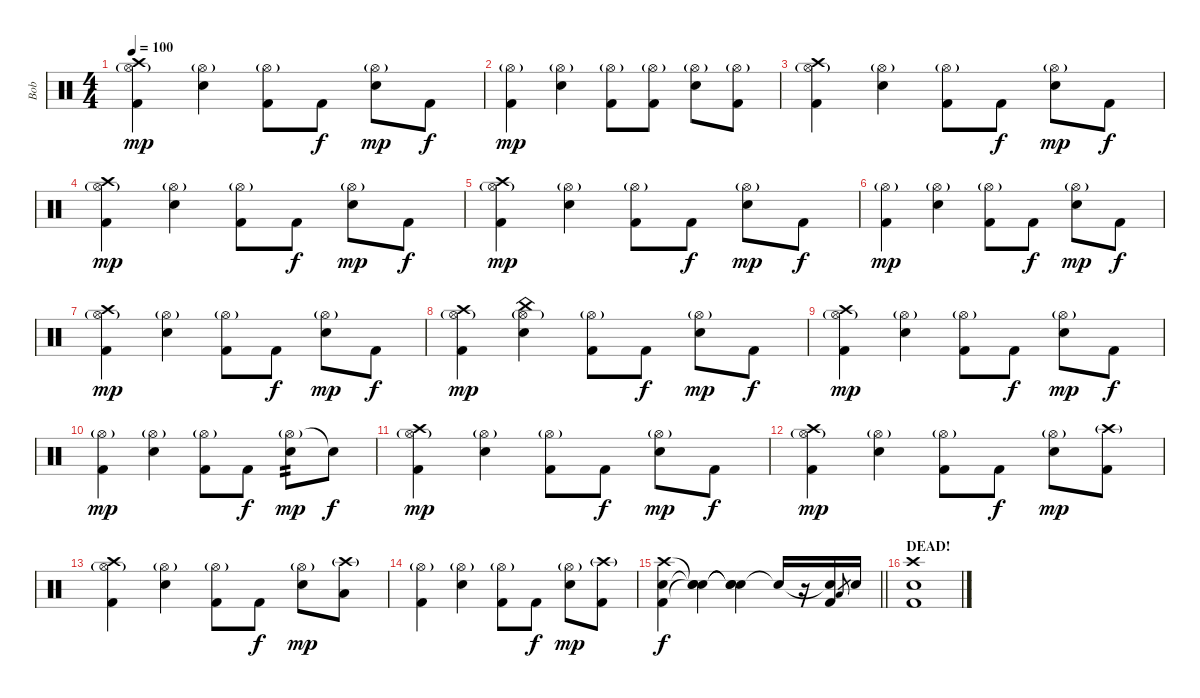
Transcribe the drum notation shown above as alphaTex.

\track ("Bob" "Bob") {instrument percussion}
\staff {score}
\articulation defaults
\ts (4 4)
\tempo 100
\clef neutral
\ks c
("Hi-Hat (open)"{g} "Crash high (hit)" "Kick (hit) 2").4{dy mp} ("Hi-Hat (open)"{g} "Electric Snare (hit)").4 ("Hi-Hat (open)"{g} "Kick (hit) 2").8 "Kick (hit) 2".8{dy f} ("Hi-Hat (open)"{g} "Electric Snare (hit)").8{dy mp} "Kick (hit) 2".8{dy f} |
("Hi-Hat (open)"{g} "Kick (hit) 2").4{dy mp} ("Hi-Hat (open)"{g} "Electric Snare (hit)").4 ("Hi-Hat (open)"{g} "Kick (hit) 2").8 ("Hi-Hat (open)"{g} "Kick (hit) 2").8 ("Hi-Hat (open)"{g} "Electric Snare (hit)").8 ("Hi-Hat (open)"{g} "Kick (hit) 2").8 |
("Hi-Hat (open)"{g} "Crash high (hit)" "Kick (hit) 2").4 ("Hi-Hat (open)"{g} "Electric Snare (hit)").4 ("Hi-Hat (open)"{g} "Kick (hit) 2").8 "Kick (hit) 2".8{dy f} ("Hi-Hat (open)"{g} "Electric Snare (hit)").8{dy mp} "Kick (hit) 2".8{dy f} |
("Hi-Hat (open)"{g} "Crash high (hit)" "Kick (hit) 2").4{dy mp} ("Hi-Hat (open)"{g} "Electric Snare (hit)").4 ("Hi-Hat (open)"{g} "Kick (hit) 2").8 "Kick (hit) 2".8{dy f} ("Hi-Hat (open)"{g} "Electric Snare (hit)").8{dy mp} "Kick (hit) 2".8{dy f} |
("Hi-Hat (open)"{g} "Crash high (hit)" "Kick (hit) 2").4{dy mp} ("Hi-Hat (open)"{g} "Electric Snare (hit)").4 ("Hi-Hat (open)"{g} "Kick (hit) 2").8 "Kick (hit) 2".8{dy f} ("Hi-Hat (open)"{g} "Electric Snare (hit)").8{dy mp} "Kick (hit) 2".8{dy f} |
("Hi-Hat (open)"{g} "Kick (hit) 2").4{dy mp} ("Hi-Hat (open)"{g} "Electric Snare (hit)").4 ("Hi-Hat (open)"{g} "Kick (hit) 2").8 "Kick (hit) 2".8{dy f} ("Hi-Hat (open)"{g} "Electric Snare (hit)").8{dy mp} "Kick (hit) 2".8{dy f} |
("Hi-Hat (open)"{g} "Crash high (hit)" "Kick (hit) 2").4{dy mp} ("Hi-Hat (open)"{g} "Electric Snare (hit)").4 ("Hi-Hat (open)"{g} "Kick (hit) 2").8 "Kick (hit) 2".8{dy f} ("Hi-Hat (open)"{g} "Electric Snare (hit)").8{dy mp} "Kick (hit) 2".8{dy f} |
("Hi-Hat (open)"{g} "Crash high (hit)" "Kick (hit) 2").4{dy mp} ("Hi-Hat (open)"{g} "China (hit)" "Electric Snare (hit)").4 ("Hi-Hat (open)"{g} "Kick (hit) 2").8 "Kick (hit) 2".8{dy f} ("Hi-Hat (open)"{g} "Electric Snare (hit)").8{dy mp} "Kick (hit) 2".8{dy f} |
("Hi-Hat (open)"{g} "Crash high (hit)" "Kick (hit) 2").4{dy mp} ("Hi-Hat (open)"{g} "Electric Snare (hit)").4 ("Hi-Hat (open)"{g} "Kick (hit) 2").8 "Kick (hit) 2".8{dy f} ("Hi-Hat (open)"{g} "Electric Snare (hit)").8{dy mp} "Kick (hit) 2".8{dy f} |
("Hi-Hat (open)"{g} "Kick (hit) 2").4{dy mp} ("Hi-Hat (open)"{g} "Electric Snare (hit)").4 ("Hi-Hat (open)"{g} "Kick (hit) 2").8 "Kick (hit) 2".8{dy f} ("Hi-Hat (open)"{g} "Electric Snare (hit)").8{tp 2 dy mp} "Snare (hit)"{t}.8{dy f} |
("Hi-Hat (open)"{g} "Crash high (hit)" "Kick (hit) 2").4{dy mp} ("Hi-Hat (open)"{g} "Electric Snare (hit)").4 ("Hi-Hat (open)"{g} "Kick (hit) 2").8 "Kick (hit) 2".8{dy f} ("Hi-Hat (open)"{g} "Electric Snare (hit)").8{dy mp} "Kick (hit) 2".8{dy f} |
("Hi-Hat (open)"{g} "Crash high (hit)" "Kick (hit) 2").4{dy mp} ("Hi-Hat (open)"{g} "Electric Snare (hit)").4 ("Hi-Hat (open)"{g} "Kick (hit) 2").8 "Kick (hit) 2".8{dy f} ("Hi-Hat (open)"{g} "Electric Snare (hit)").8{dy mp} ("Crash high (hit)"{g} "Kick (hit) 2").8 |
("Hi-Hat (open)"{g} "Crash high (hit)" "Kick (hit) 2").4 ("Hi-Hat (open)"{g} "Electric Snare (hit)").4 ("Hi-Hat (open)"{g} "Kick (hit) 2").8 "Kick (hit) 2".8{dy f} ("Hi-Hat (open)"{g} "Electric Snare (hit)").8{dy mp} ("Crash high (hit)"{g} "Low Tom (hit)").8 |
("Hi-Hat (open)"{g} "Kick (hit) 2").4 ("Hi-Hat (open)"{g} "Electric Snare (hit)").4 ("Hi-Hat (open)"{g} "Kick (hit) 2").8 "Kick (hit) 2".8{dy f} ("Hi-Hat (open)"{g} "Electric Snare (hit)").8{dy mp} ("Crash high (hit)"{g} "Kick (hit) 2").8 |
\barLineRight lightlight
("Crash high (hit)" "Electric Snare (hit)" "Kick (hit) 2").4{dy f} ("Snare (hit)"{t} "Snare (hit)"{t} "Snare (hit)"{t}).4 ("Snare (hit)"{t} "Snare (hit)"{t} "Snare (hit)"{t}).4 "Snare (hit)"{t}.16 r.16 ("Snare (hit)"{t} "Kick (hit) 2").16 "Low Tom (hit)".8{gr} "Electric Snare (hit)".16 |
\section ("" "DEAD!")
("Crash high (hit)" "Electric Snare (hit)" "Kick (hit) 2").1
